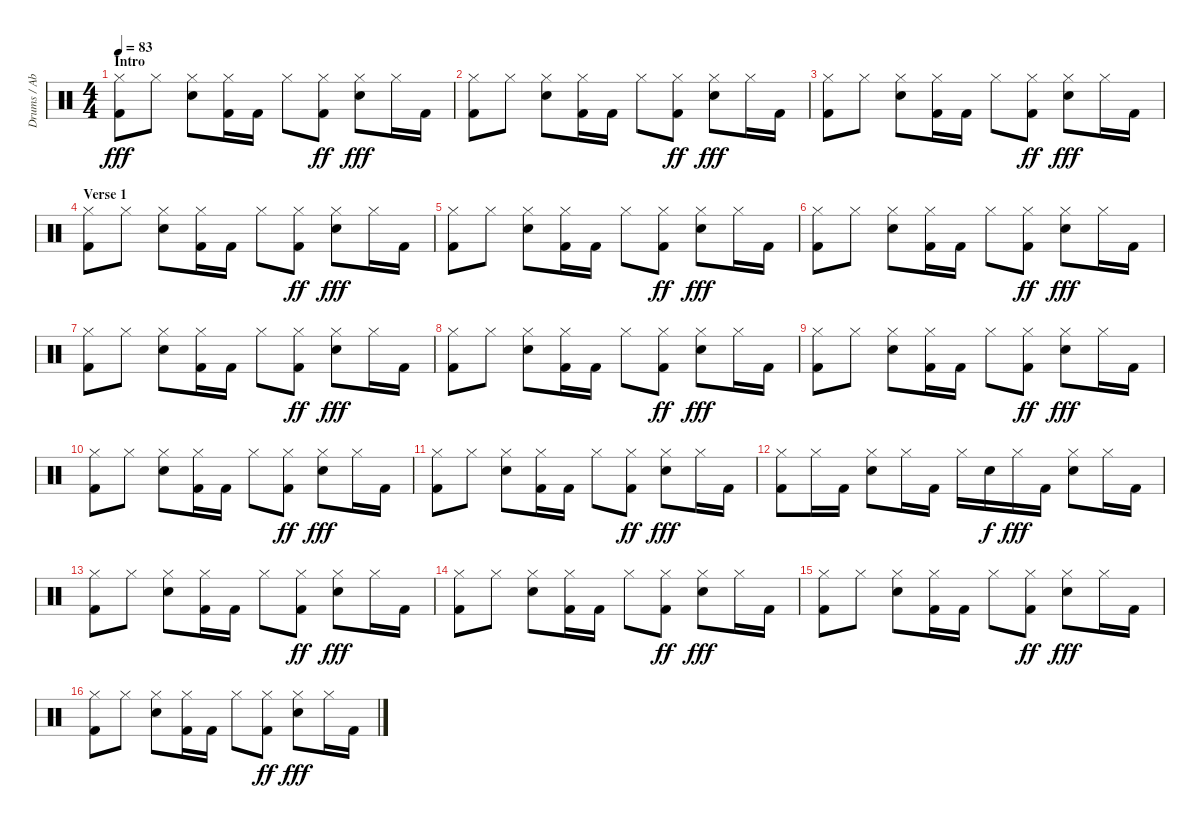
\track ("Drums / Abe Cunningham" "Drums / Ab") {instrument percussion}
\staff {score}
\articulation defaults
\ts (4 4)
\section ("" "Intro")
\tempo 83
\clef neutral
\ks c
("Hi-Hat (closed)" "Kick (hit) 2").8{dy fff} "Hi-Hat (closed)".8 ("Hi-Hat (closed)" "Electric Snare (hit)").8 ("Hi-Hat (closed)" "Kick (hit) 2").16 "Kick (hit) 2".16 "Hi-Hat (closed)".8 ("Hi-Hat (closed)" "Kick (hit) 2").8{dy ff} ("Hi-Hat (closed)" "Electric Snare (hit)").8{dy fff} "Hi-Hat (closed)".16 "Kick (hit) 2".16 |
("Hi-Hat (closed)" "Kick (hit) 2").8 "Hi-Hat (closed)".8 ("Hi-Hat (closed)" "Electric Snare (hit)").8 ("Hi-Hat (closed)" "Kick (hit) 2").16 "Kick (hit) 2".16 "Hi-Hat (closed)".8 ("Hi-Hat (closed)" "Kick (hit) 2").8{dy ff} ("Hi-Hat (closed)" "Electric Snare (hit)").8{dy fff} "Hi-Hat (closed)".16 "Kick (hit) 2".16 |
("Hi-Hat (closed)" "Kick (hit) 2").8 "Hi-Hat (closed)".8 ("Hi-Hat (closed)" "Electric Snare (hit)").8 ("Hi-Hat (closed)" "Kick (hit) 2").16 "Kick (hit) 2".16 "Hi-Hat (closed)".8 ("Hi-Hat (closed)" "Kick (hit) 2").8{dy ff} ("Hi-Hat (closed)" "Electric Snare (hit)").8{dy fff} "Hi-Hat (closed)".16 "Kick (hit) 2".16 |
\section ("" "Verse 1")
("Hi-Hat (closed)" "Kick (hit) 2").8 "Hi-Hat (closed)".8 ("Hi-Hat (closed)" "Electric Snare (hit)").8 ("Hi-Hat (closed)" "Kick (hit) 2").16 "Kick (hit) 2".16 "Hi-Hat (closed)".8 ("Hi-Hat (closed)" "Kick (hit) 2").8{dy ff} ("Hi-Hat (closed)" "Electric Snare (hit)").8{dy fff} "Hi-Hat (closed)".16 "Kick (hit) 2".16 |
("Hi-Hat (closed)" "Kick (hit) 2").8 "Hi-Hat (closed)".8 ("Hi-Hat (closed)" "Electric Snare (hit)").8 ("Hi-Hat (closed)" "Kick (hit) 2").16 "Kick (hit) 2".16 "Hi-Hat (closed)".8 ("Hi-Hat (closed)" "Kick (hit) 2").8{dy ff} ("Hi-Hat (closed)" "Electric Snare (hit)").8{dy fff} "Hi-Hat (closed)".16 "Kick (hit) 2".16 |
("Hi-Hat (closed)" "Kick (hit) 2").8 "Hi-Hat (closed)".8 ("Hi-Hat (closed)" "Electric Snare (hit)").8 ("Hi-Hat (closed)" "Kick (hit) 2").16 "Kick (hit) 2".16 "Hi-Hat (closed)".8 ("Hi-Hat (closed)" "Kick (hit) 2").8{dy ff} ("Hi-Hat (closed)" "Electric Snare (hit)").8{dy fff} "Hi-Hat (closed)".16 "Kick (hit) 2".16 |
("Hi-Hat (closed)" "Kick (hit) 2").8 "Hi-Hat (closed)".8 ("Hi-Hat (closed)" "Electric Snare (hit)").8 ("Hi-Hat (closed)" "Kick (hit) 2").16 "Kick (hit) 2".16 "Hi-Hat (closed)".8 ("Hi-Hat (closed)" "Kick (hit) 2").8{dy ff} ("Hi-Hat (closed)" "Electric Snare (hit)").8{dy fff} "Hi-Hat (closed)".16 "Kick (hit) 2".16 |
("Hi-Hat (closed)" "Kick (hit) 2").8 "Hi-Hat (closed)".8 ("Hi-Hat (closed)" "Electric Snare (hit)").8 ("Hi-Hat (closed)" "Kick (hit) 2").16 "Kick (hit) 2".16 "Hi-Hat (closed)".8 ("Hi-Hat (closed)" "Kick (hit) 2").8{dy ff} ("Hi-Hat (closed)" "Electric Snare (hit)").8{dy fff} "Hi-Hat (closed)".16 "Kick (hit) 2".16 |
("Hi-Hat (closed)" "Kick (hit) 2").8 "Hi-Hat (closed)".8 ("Hi-Hat (closed)" "Electric Snare (hit)").8 ("Hi-Hat (closed)" "Kick (hit) 2").16 "Kick (hit) 2".16 "Hi-Hat (closed)".8 ("Hi-Hat (closed)" "Kick (hit) 2").8{dy ff} ("Hi-Hat (closed)" "Electric Snare (hit)").8{dy fff} "Hi-Hat (closed)".16 "Kick (hit) 2".16 |
("Hi-Hat (closed)" "Kick (hit) 2").8 "Hi-Hat (closed)".8 ("Hi-Hat (closed)" "Electric Snare (hit)").8 ("Hi-Hat (closed)" "Kick (hit) 2").16 "Kick (hit) 2".16 "Hi-Hat (closed)".8 ("Hi-Hat (closed)" "Kick (hit) 2").8{dy ff} ("Hi-Hat (closed)" "Electric Snare (hit)").8{dy fff} "Hi-Hat (closed)".16 "Kick (hit) 2".16 |
("Hi-Hat (closed)" "Kick (hit) 2").8 "Hi-Hat (closed)".8 ("Hi-Hat (closed)" "Electric Snare (hit)").8 ("Hi-Hat (closed)" "Kick (hit) 2").16 "Kick (hit) 2".16 "Hi-Hat (closed)".8 ("Hi-Hat (closed)" "Kick (hit) 2").8{dy ff} ("Hi-Hat (closed)" "Electric Snare (hit)").8{dy fff} "Hi-Hat (closed)".16 "Kick (hit) 2".16 |
("Hi-Hat (closed)" "Kick (hit) 2").8 "Hi-Hat (closed)".16 "Kick (hit) 2".16 ("Hi-Hat (closed)" "Electric Snare (hit)").8 "Hi-Hat (closed)".16 "Kick (hit) 2".16 "Hi-Hat (closed)".16 "Electric Snare (hit)".16{dy f} "Hi-Hat (closed)".16{dy fff} "Kick (hit) 2".16 ("Hi-Hat (closed)" "Electric Snare (hit)").8 "Hi-Hat (closed)".16 "Kick (hit) 2".16 |
("Hi-Hat (closed)" "Kick (hit) 2").8 "Hi-Hat (closed)".8 ("Hi-Hat (closed)" "Electric Snare (hit)").8 ("Hi-Hat (closed)" "Kick (hit) 2").16 "Kick (hit) 2".16 "Hi-Hat (closed)".8 ("Hi-Hat (closed)" "Kick (hit) 2").8{dy ff} ("Hi-Hat (closed)" "Electric Snare (hit)").8{dy fff} "Hi-Hat (closed)".16 "Kick (hit) 2".16 |
("Hi-Hat (closed)" "Kick (hit) 2").8 "Hi-Hat (closed)".8 ("Hi-Hat (closed)" "Electric Snare (hit)").8 ("Hi-Hat (closed)" "Kick (hit) 2").16 "Kick (hit) 2".16 "Hi-Hat (closed)".8 ("Hi-Hat (closed)" "Kick (hit) 2").8{dy ff} ("Hi-Hat (closed)" "Electric Snare (hit)").8{dy fff} "Hi-Hat (closed)".16 "Kick (hit) 2".16 |
("Hi-Hat (closed)" "Kick (hit) 2").8 "Hi-Hat (closed)".8 ("Hi-Hat (closed)" "Electric Snare (hit)").8 ("Hi-Hat (closed)" "Kick (hit) 2").16 "Kick (hit) 2".16 "Hi-Hat (closed)".8 ("Hi-Hat (closed)" "Kick (hit) 2").8{dy ff} ("Hi-Hat (closed)" "Electric Snare (hit)").8{dy fff} "Hi-Hat (closed)".16 "Kick (hit) 2".16 |
("Hi-Hat (closed)" "Kick (hit) 2").8 "Hi-Hat (closed)".8 ("Hi-Hat (closed)" "Electric Snare (hit)").8 ("Hi-Hat (closed)" "Kick (hit) 2").16 "Kick (hit) 2".16 "Hi-Hat (closed)".8 ("Hi-Hat (closed)" "Kick (hit) 2").8{dy ff} ("Hi-Hat (closed)" "Electric Snare (hit)").8{dy fff} "Hi-Hat (closed)".16 "Kick (hit) 2".16
